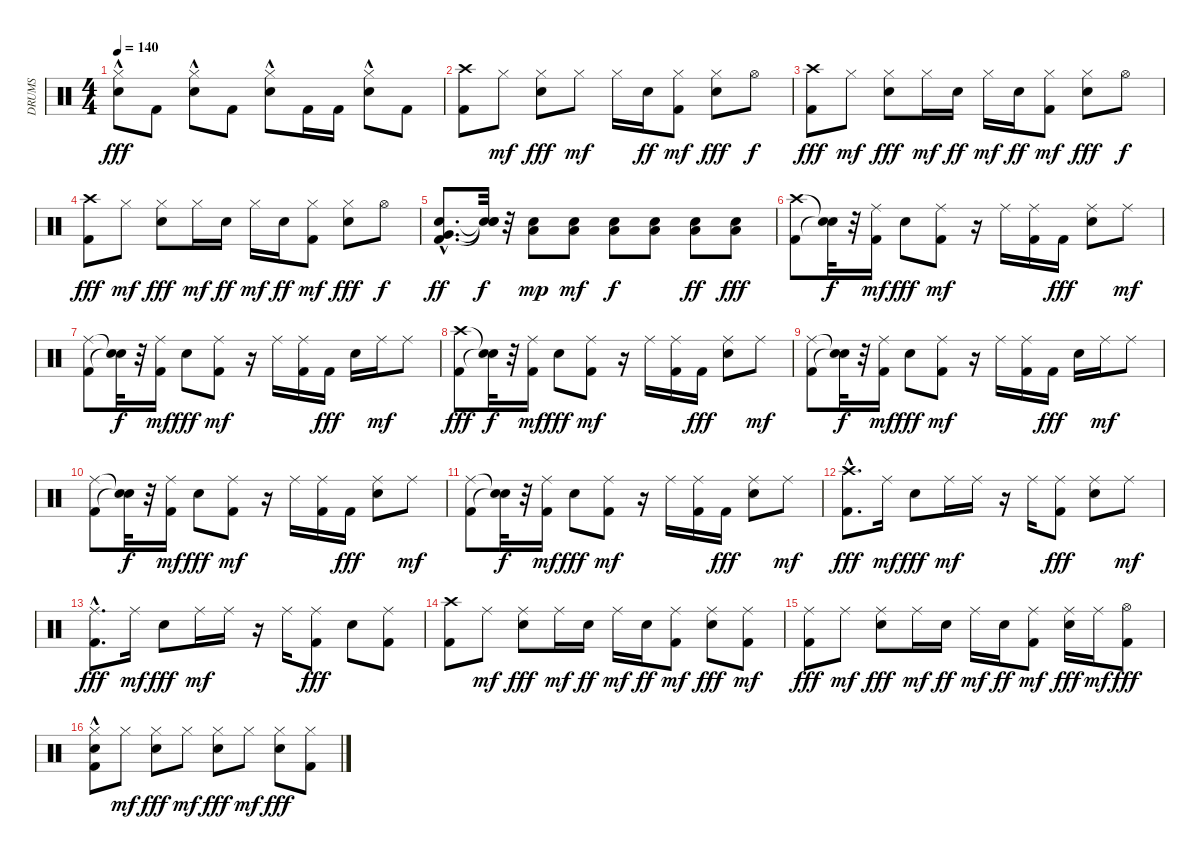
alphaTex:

\track ("DRUMS" "DRUMS") {instrument percussion}
\staff {score}
\articulation defaults
\ts (4 4)
\tempo 140
\clef neutral
\ks c
("Electric Snare (hit)"{hac} "Hi-Hat (closed)"{hac}).8{dy fff} "Kick (hit) 2".8 ("Electric Snare (hit)"{hac} "Hi-Hat (closed)"{hac}).8 "Kick (hit) 2".8 ("Electric Snare (hit)"{hac} "Hi-Hat (closed)"{hac}).8 "Kick (hit) 2".16 "Kick (hit) 2".16 ("Electric Snare (hit)"{hac} "Hi-Hat (closed)"{hac}).8 "Kick (hit) 2".8 |
("Kick (hit) 2" "Crash high (hit)").8 "Hi-Hat (closed)".8{dy mf} ("Hi-Hat (closed)" "Electric Snare (hit)").8{dy fff} "Hi-Hat (closed)".8{dy mf} "Hi-Hat (closed)".16 "Electric Snare (hit)".16{dy ff} ("Kick (hit) 2" "Hi-Hat (closed)").8{dy mf} ("Hi-Hat (closed)" "Electric Snare (hit)").8{dy fff} "Hi-Hat (open)".8{dy f} |
("Kick (hit) 2" "Crash high (hit)").8{dy fff} "Hi-Hat (closed)".8{dy mf} ("Hi-Hat (closed)" "Electric Snare (hit)").8{dy fff} "Hi-Hat (closed)".16{dy mf} "Electric Snare (hit)".16{dy ff} "Hi-Hat (closed)".16{dy mf} "Electric Snare (hit)".16{dy ff} ("Kick (hit) 2" "Hi-Hat (closed)").8{dy mf} ("Hi-Hat (closed)" "Electric Snare (hit)").8{dy fff} "Hi-Hat (open)".8{dy f} |
("Kick (hit) 2" "Crash high (hit)").8{dy fff} "Hi-Hat (closed)".8{dy mf} ("Hi-Hat (closed)" "Electric Snare (hit)").8{dy fff} "Hi-Hat (closed)".16{dy mf} "Electric Snare (hit)".16{dy ff} "Hi-Hat (closed)".16{dy mf} "Electric Snare (hit)".16{dy ff} ("Kick (hit) 2" "Hi-Hat (closed)").8{dy mf} ("Hi-Hat (closed)" "Electric Snare (hit)").8{dy fff} "Hi-Hat (open)".8{dy f} |
("Kick (hit) 2"{hac} "Electric Snare (hit)"{hac} "Very Low Tom (hit)"{hac}).8{d dy ff} ("Snare (hit)"{t} "Snare (hit)"{t} "Snare (hit)"{t}).32{dy f} r.32 ("Low Tom (hit)" "Electric Snare (hit)").8{dy mp} ("Low Tom (hit)" "Electric Snare (hit)").8{dy mf} ("Low Tom (hit)" "Electric Snare (hit)").8{dy f} ("Low Tom (hit)" "Electric Snare (hit)").8 ("Low Tom (hit)" "Electric Snare (hit)").8{dy ff} ("Low Tom (hit)" "Electric Snare (hit)").8{dy fff} |
("Kick (hit) 2" "Crash high (hit)").8 ("Snare (hit)"{t} "Snare (hit)"{t}).32{dy f} r.32 ("Kick (hit) 2" "Ride (middle)").16{dy mf} "Electric Snare (hit)".8{dy fff} ("Kick (hit) 2" "Ride (middle)").8{dy mf} r.16 "Ride (middle)".16 ("Kick (hit) 2" "Ride (middle)").16 "Kick (hit) 2".16{dy fff} ("Electric Snare (hit)" "Ride (middle)").8 "Ride (middle)".8{dy mf} |
("Kick (hit) 2" "Ride (middle)").8 ("Snare (hit)"{t} "Snare (hit)"{t}).32{dy f} r.32 ("Kick (hit) 2" "Ride (middle)").16{dy mf} "Electric Snare (hit)".8{dy fff} ("Kick (hit) 2" "Ride (middle)").8{dy mf} r.16 "Ride (middle)".16 ("Kick (hit) 2" "Ride (middle)").16 "Kick (hit) 2".16{dy fff} "Electric Snare (hit)".16 "Ride (middle)".16{dy mf} "Ride (middle)".8 |
("Kick (hit) 2" "Crash high (hit)").8{dy fff} ("Snare (hit)"{t} "Snare (hit)"{t}).32{dy f} r.32 ("Kick (hit) 2" "Ride (middle)").16{dy mf} "Electric Snare (hit)".8{dy fff} ("Kick (hit) 2" "Ride (middle)").8{dy mf} r.16 "Ride (middle)".16 ("Kick (hit) 2" "Ride (middle)").16 "Kick (hit) 2".16{dy fff} ("Electric Snare (hit)" "Ride (middle)").8 "Ride (middle)".8{dy mf} |
("Kick (hit) 2" "Ride (middle)").8 ("Snare (hit)"{t} "Snare (hit)"{t}).32{dy f} r.32 ("Kick (hit) 2" "Ride (middle)").16{dy mf} "Electric Snare (hit)".8{dy fff} ("Kick (hit) 2" "Ride (middle)").8{dy mf} r.16 "Ride (middle)".16 ("Kick (hit) 2" "Ride (middle)").16 "Kick (hit) 2".16{dy fff} "Electric Snare (hit)".16 "Ride (middle)".16{dy mf} "Ride (middle)".8 |
("Kick (hit) 2" "Ride (middle)").8 ("Snare (hit)"{t} "Snare (hit)"{t}).32{dy f} r.32 ("Kick (hit) 2" "Ride (middle)").16{dy mf} "Electric Snare (hit)".8{dy fff} ("Kick (hit) 2" "Ride (middle)").8{dy mf} r.16 "Ride (middle)".16 ("Kick (hit) 2" "Ride (middle)").16 "Kick (hit) 2".16{dy fff} ("Electric Snare (hit)" "Ride (middle)").8 "Ride (middle)".8{dy mf} |
("Kick (hit) 2" "Ride (middle)").8 ("Snare (hit)"{t} "Snare (hit)"{t}).32{dy f} r.32 ("Kick (hit) 2" "Ride (middle)").16{dy mf} "Electric Snare (hit)".8{dy fff} ("Kick (hit) 2" "Ride (middle)").8{dy mf} r.16 "Ride (middle)".16 ("Kick (hit) 2" "Ride (middle)").16 "Kick (hit) 2".16{dy fff} ("Electric Snare (hit)" "Ride (middle)").8 "Ride (middle)".8{dy mf} |
("Crash high (hit)" "Kick (hit) 2"{hac}).8{d dy fff} "Ride (middle)".16{dy mf} "Electric Snare (hit)".8{dy fff} "Ride (middle)".16{dy mf} "Ride (middle)".16 r.16 "Ride (middle)".16 ("Ride (middle)" "Kick (hit) 2").8{dy fff} ("Electric Snare (hit)" "Ride (middle)").8 "Ride (middle)".8{dy mf} |
("Ride (middle)" "Kick (hit) 2"{hac}).8{d dy fff} "Ride (middle)".16{dy mf} "Electric Snare (hit)".8{dy fff} "Ride (middle)".16{dy mf} "Ride (middle)".16 r.16 "Ride (middle)".16 ("Ride (middle)" "Kick (hit) 2").8{dy fff} "Electric Snare (hit)".8 ("Ride (middle)" "Kick (hit) 2").8 |
("Kick (hit) 2" "Crash high (hit)").8 "Ride (middle)".8{dy mf} ("Ride (middle)" "Electric Snare (hit)").8{dy fff} "Ride (middle)".16{dy mf} "Electric Snare (hit)".16{dy ff} "Ride (middle)".16{dy mf} "Electric Snare (hit)".16{dy ff} ("Kick (hit) 2" "Ride (middle)").8{dy mf} ("Ride (middle)" "Electric Snare (hit)").8{dy fff} ("Kick (hit) 2" "Ride (middle)").8{dy mf} |
("Kick (hit) 2" "Ride (middle)").8{dy fff} "Ride (middle)".8{dy mf} ("Ride (middle)" "Electric Snare (hit)").8{dy fff} "Ride (middle)".16{dy mf} "Electric Snare (hit)".16{dy ff} "Ride (middle)".16{dy mf} "Electric Snare (hit)".16{dy ff} ("Kick (hit) 2" "Ride (middle)").8{dy mf} ("Ride (middle)" "Electric Snare (hit)").16{dy fff} "Ride (middle)".16{dy mf} ("Kick (hit) 2" "Hi-Hat (open)").8{dy fff} |
("Hi-Hat (closed)" "Electric Snare (hit)" "Kick (hit) 2"{hac}).8 "Hi-Hat (closed)".8{dy mf} ("Hi-Hat (closed)" "Electric Snare (hit)").8{dy fff} "Hi-Hat (closed)".8{dy mf} ("Hi-Hat (closed)" "Electric Snare (hit)").8{dy fff} "Hi-Hat (closed)".8{dy mf} ("Hi-Hat (closed)" "Electric Snare (hit)").8{dy fff} ("Hi-Hat (closed)" "Kick (hit) 2").8
